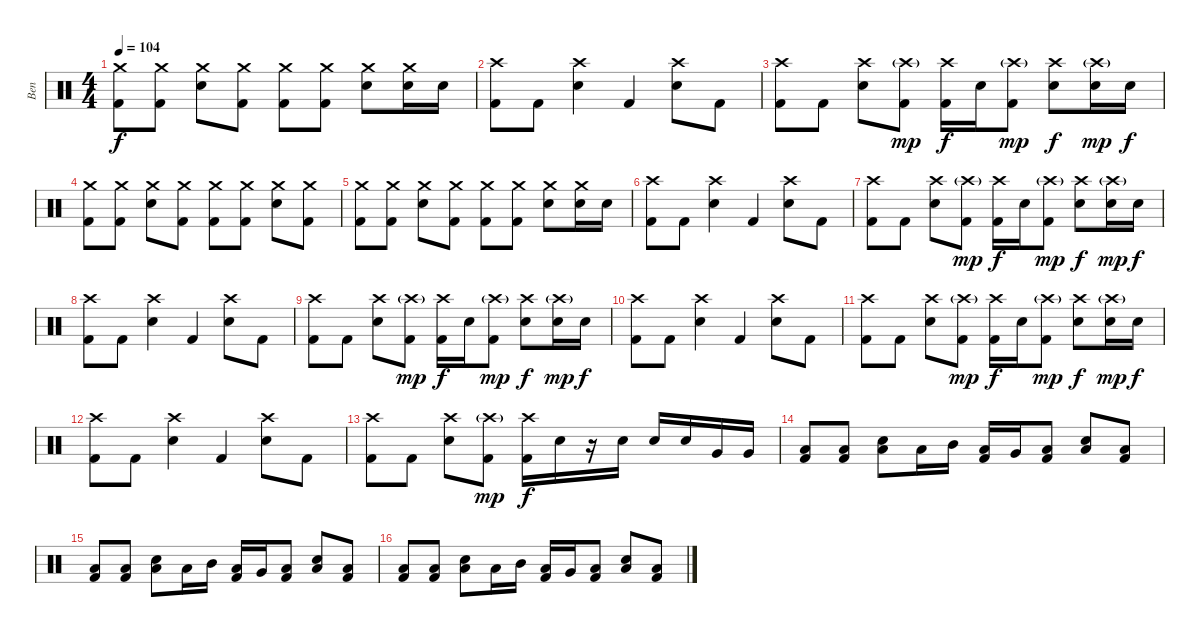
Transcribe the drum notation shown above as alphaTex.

\track ("Ben" "Ben") {instrument percussion}
\staff {score}
\articulation defaults
\ts (4 4)
\tempo 104
\clef neutral
\ks c
("Crash medium (hit)" "Kick (hit) 2").8{dy f} ("Crash medium (hit)" "Kick (hit) 2").8 ("Snare (hit) 2" "Crash medium (hit)").8 ("Crash medium (hit)" "Kick (hit) 2").8 ("Crash medium (hit)" "Kick (hit) 2").8 ("Crash medium (hit)" "Kick (hit) 2").8 ("Snare (hit) 2" "Crash medium (hit)").8 ("Snare (hit) 2" "Crash medium (hit)").16 "Snare (hit) 2".16 |
("Crash high (hit)" "Kick (hit) 2").8 "Kick (hit) 2".8 ("Snare (hit) 2" "Crash high (hit)").4 "Kick (hit) 2".4 ("Snare (hit) 2" "Crash high (hit)").8 "Kick (hit) 2".8 |
("Crash high (hit)" "Kick (hit) 2").8 "Kick (hit) 2".8 ("Snare (hit) 2" "Crash high (hit)").8 ("Crash high (hit)"{g} "Kick (hit) 2").8{dy mp} ("Crash high (hit)" "Kick (hit) 2").16{dy f} "Snare (hit) 2".16 ("Crash high (hit)"{g} "Kick (hit) 2").8{dy mp} ("Snare (hit) 2" "Crash high (hit)").8{dy f} ("Snare (hit) 2" "Crash high (hit)"{g}).16{dy mp} "Snare (hit) 2".16{dy f} |
("Crash medium (hit)" "Kick (hit) 2").8 ("Crash medium (hit)" "Kick (hit) 2").8 ("Snare (hit) 2" "Crash medium (hit)").8 ("Crash medium (hit)" "Kick (hit) 2").8 ("Crash medium (hit)" "Kick (hit) 2").8 ("Crash medium (hit)" "Kick (hit) 2").8 ("Snare (hit) 2" "Crash medium (hit)").8 ("Crash medium (hit)" "Kick (hit) 2").8 |
("Crash medium (hit)" "Kick (hit) 2").8 ("Crash medium (hit)" "Kick (hit) 2").8 ("Snare (hit) 2" "Crash medium (hit)").8 ("Crash medium (hit)" "Kick (hit) 2").8 ("Crash medium (hit)" "Kick (hit) 2").8 ("Crash medium (hit)" "Kick (hit) 2").8 ("Snare (hit) 2" "Crash medium (hit)").8 ("Snare (hit) 2" "Crash medium (hit)").16 "Snare (hit) 2".16 |
("Crash high (hit)" "Kick (hit) 2").8 "Kick (hit) 2".8 ("Snare (hit) 2" "Crash high (hit)").4 "Kick (hit) 2".4 ("Snare (hit) 2" "Crash high (hit)").8 "Kick (hit) 2".8 |
("Crash high (hit)" "Kick (hit) 2").8 "Kick (hit) 2".8 ("Snare (hit) 2" "Crash high (hit)").8 ("Crash high (hit)"{g} "Kick (hit) 2").8{dy mp} ("Crash high (hit)" "Kick (hit) 2").16{dy f} "Snare (hit) 2".16 ("Crash high (hit)"{g} "Kick (hit) 2").8{dy mp} ("Snare (hit) 2" "Crash high (hit)").8{dy f} ("Snare (hit) 2" "Crash high (hit)"{g}).16{dy mp} "Snare (hit) 2".16{dy f} |
("Crash high (hit)" "Kick (hit) 2").8 "Kick (hit) 2".8 ("Snare (hit) 2" "Crash high (hit)").4 "Kick (hit) 2".4 ("Snare (hit) 2" "Crash high (hit)").8 "Kick (hit) 2".8 |
("Crash high (hit)" "Kick (hit) 2").8 "Kick (hit) 2".8 ("Snare (hit) 2" "Crash high (hit)").8 ("Crash high (hit)"{g} "Kick (hit) 2").8{dy mp} ("Crash high (hit)" "Kick (hit) 2").16{dy f} "Snare (hit) 2".16 ("Crash high (hit)"{g} "Kick (hit) 2").8{dy mp} ("Snare (hit) 2" "Crash high (hit)").8{dy f} ("Snare (hit) 2" "Crash high (hit)"{g}).16{dy mp} "Snare (hit) 2".16{dy f} |
("Crash high (hit)" "Kick (hit) 2").8 "Kick (hit) 2".8 ("Snare (hit) 2" "Crash high (hit)").4 "Kick (hit) 2".4 ("Snare (hit) 2" "Crash high (hit)").8 "Kick (hit) 2".8 |
("Crash high (hit)" "Kick (hit) 2").8 "Kick (hit) 2".8 ("Snare (hit) 2" "Crash high (hit)").8 ("Crash high (hit)"{g} "Kick (hit) 2").8{dy mp} ("Crash high (hit)" "Kick (hit) 2").16{dy f} "Snare (hit) 2".16 ("Crash high (hit)"{g} "Kick (hit) 2").8{dy mp} ("Snare (hit) 2" "Crash high (hit)").8{dy f} ("Snare (hit) 2" "Crash high (hit)"{g}).16{dy mp} "Snare (hit) 2".16{dy f} |
("Crash high (hit)" "Kick (hit) 2").8 "Kick (hit) 2".8 ("Snare (hit) 2" "Crash high (hit)").4 "Kick (hit) 2".4 ("Snare (hit) 2" "Crash high (hit)").8 "Kick (hit) 2".8 |
("Crash high (hit)" "Kick (hit) 2").8 "Kick (hit) 2".8 ("Snare (hit) 2" "Crash high (hit)").8 ("Crash high (hit)"{g} "Kick (hit) 2").8{dy mp} ("Crash high (hit)" "Kick (hit) 2").16{dy f} "Snare (hit) 2".16 r.16 "Snare (hit) 2".16 "Snare (hit) 2".16 "Snare (hit) 2".16 "Very Low Tom (hit)".16 "Very Low Tom (hit)".16 |
("Low Floor Tom (hit)" "Kick (hit) 2").8 ("Low Floor Tom (hit)" "Kick (hit) 2").8 ("Snare (hit) 2" "Low Floor Tom (hit)").8 "Low Floor Tom (hit)".16 "Mid Tom (hit)".16 ("Low Floor Tom (hit)" "Kick (hit) 2").16 "Very Low Tom (hit)".16 ("Low Floor Tom (hit)" "Kick (hit) 2").8 ("Snare (hit) 2" "Low Floor Tom (hit)").8 ("Low Floor Tom (hit)" "Kick (hit) 2").8 |
("Low Floor Tom (hit)" "Kick (hit) 2").8 ("Low Floor Tom (hit)" "Kick (hit) 2").8 ("Snare (hit) 2" "Low Floor Tom (hit)").8 "Low Floor Tom (hit)".16 "Mid Tom (hit)".16 ("Low Floor Tom (hit)" "Kick (hit) 2").16 "Very Low Tom (hit)".16 ("Low Floor Tom (hit)" "Kick (hit) 2").8 ("Snare (hit) 2" "Low Floor Tom (hit)").8 ("Low Floor Tom (hit)" "Kick (hit) 2").8 |
("Low Floor Tom (hit)" "Kick (hit) 2").8 ("Low Floor Tom (hit)" "Kick (hit) 2").8 ("Snare (hit) 2" "Low Floor Tom (hit)").8 "Low Floor Tom (hit)".16 "Mid Tom (hit)".16 ("Low Floor Tom (hit)" "Kick (hit) 2").16 "Very Low Tom (hit)".16 ("Low Floor Tom (hit)" "Kick (hit) 2").8 ("Snare (hit) 2" "Low Floor Tom (hit)").8 ("Low Floor Tom (hit)" "Kick (hit) 2").8
